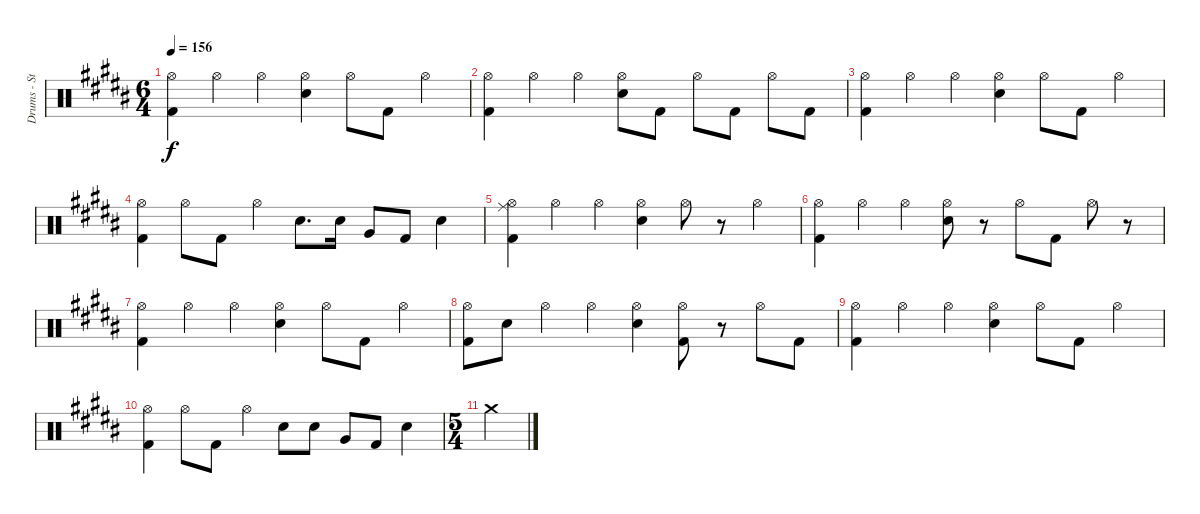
\track ("Drums - Steve Judd" "Drums - St") {instrument percussion}
\staff {score}
\articulation defaults
\ts (6 4)
\tempo 156
\clef neutral
\ks b
("Hi-Hat (open)" "Kick (hit) 2").4{dy f} "Hi-Hat (open)".4 "Hi-Hat (open)".4 ("Hi-Hat (open)" "Electric Snare (hit)").4 "Hi-Hat (open)".8 "Kick (hit) 2".8 "Hi-Hat (open)".4 |
("Hi-Hat (open)" "Kick (hit) 2").4 "Hi-Hat (open)".4 "Hi-Hat (open)".4 ("Hi-Hat (open)" "Electric Snare (hit)").8 "Kick (hit) 2".8 "Hi-Hat (open)".8 "Kick (hit) 2".8 "Hi-Hat (open)".8 "Kick (hit) 2".8 |
("Hi-Hat (open)" "Kick (hit) 2").4 "Hi-Hat (open)".4 "Hi-Hat (open)".4 ("Hi-Hat (open)" "Electric Snare (hit)").4 "Hi-Hat (open)".8 "Kick (hit) 2".8 "Hi-Hat (open)".4 |
("Hi-Hat (open)" "Kick (hit) 2").4 "Hi-Hat (open)".8 "Kick (hit) 2".8 "Hi-Hat (open)".4 "Electric Snare (hit)".8{d} "Electric Snare (hit)".16 "Very Low Tom (hit)".8 "Kick (hit) 2".8 "Electric Snare (hit)".4 |
("Ride (middle)" "Hi-Hat (open)" "Kick (hit) 2").4 "Hi-Hat (open)".4 "Hi-Hat (open)".4 ("Hi-Hat (open)" "Electric Snare (hit)").4 "Hi-Hat (open)".8 r.8 "Hi-Hat (open)".4 |
("Hi-Hat (open)" "Kick (hit) 2").4 "Hi-Hat (open)".4 "Hi-Hat (open)".4 ("Hi-Hat (open)" "Electric Snare (hit)").8 r.8 "Hi-Hat (open)".8 "Kick (hit) 2".8 "Hi-Hat (open)".8 r.8 |
("Hi-Hat (open)" "Kick (hit) 2").4 "Hi-Hat (open)".4 "Hi-Hat (open)".4 ("Hi-Hat (open)" "Electric Snare (hit)").4 "Hi-Hat (open)".8 "Kick (hit) 2".8 "Hi-Hat (open)".4 |
("Hi-Hat (open)" "Kick (hit) 2").8 "Electric Snare (hit)".8 "Hi-Hat (open)".4 "Hi-Hat (open)".4 ("Hi-Hat (open)" "Electric Snare (hit)").4 ("Hi-Hat (open)" "Kick (hit) 2").8 r.8 "Hi-Hat (open)".8 "Kick (hit) 2".8 |
("Hi-Hat (open)" "Kick (hit) 2").4 "Hi-Hat (open)".4 "Hi-Hat (open)".4 ("Hi-Hat (open)" "Electric Snare (hit)").4 "Hi-Hat (open)".8 "Kick (hit) 2".8 "Hi-Hat (open)".4 |
("Hi-Hat (open)" "Kick (hit) 2").4 "Hi-Hat (open)".8 "Kick (hit) 2".8 "Hi-Hat (open)".4 "Electric Snare (hit)".8 "Electric Snare (hit)".8 "Very Low Tom (hit)".8 "Kick (hit) 2".8 "Electric Snare (hit)".4 |
\ts (5 4)
"Crash medium (hit)".4
